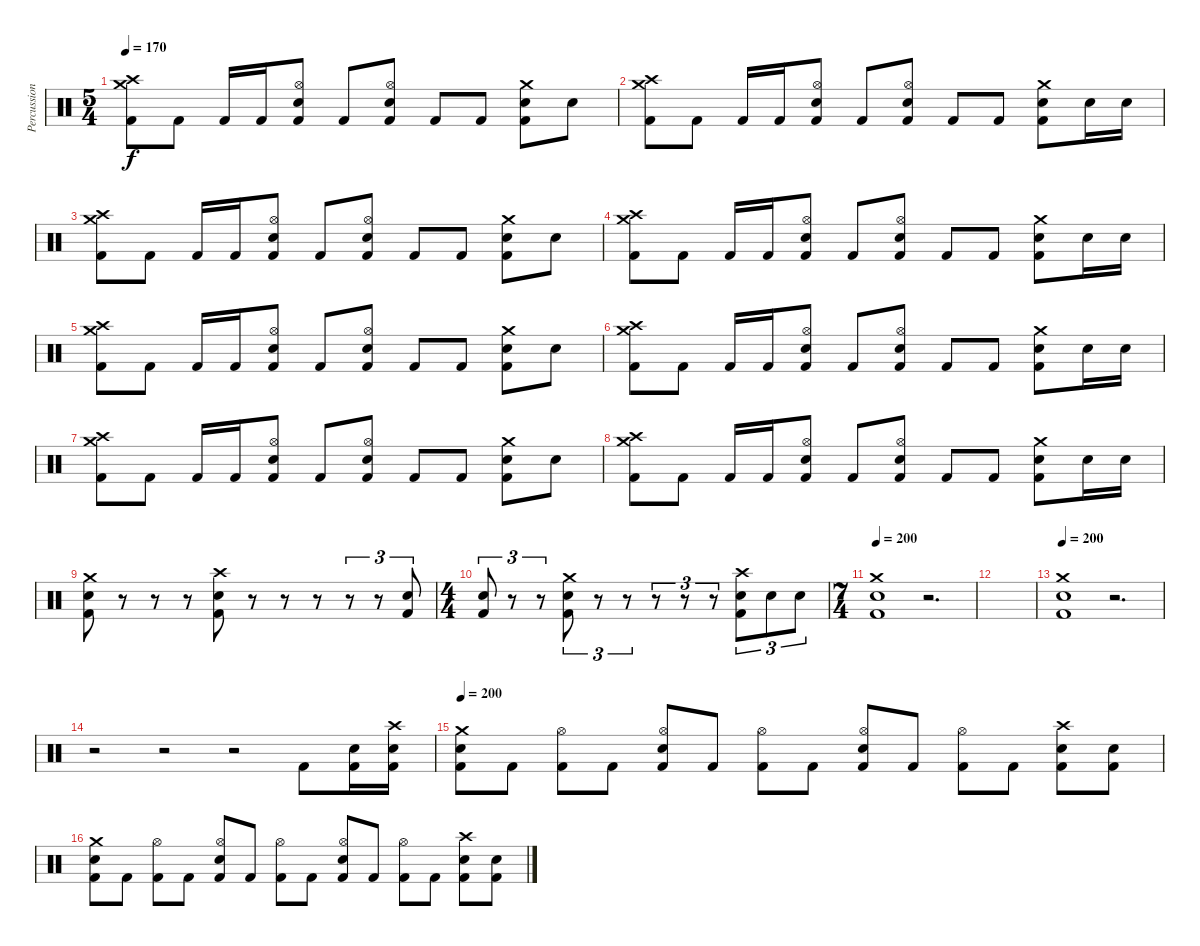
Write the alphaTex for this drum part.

\track ("Percussion" "Percussion") {instrument percussion}
\staff {score}
\articulation defaults
\ts (5 4)
\tempo 170
\clef neutral
\ks c
("Crash medium (hit)" "Crash high (hit)" "Kick (hit) 2").8{dy f} "Kick (hit) 2".8 "Kick (hit) 2".16 "Kick (hit) 2".16 ("Hi-Hat (open)" "Snare (hit) 2" "Kick (hit) 2").8 "Kick (hit) 2".8 ("Hi-Hat (open)" "Snare (hit) 2" "Kick (hit) 2").8 "Kick (hit) 2".8 "Kick (hit) 2".8 ("Crash medium (hit)" "Snare (hit) 2" "Kick (hit) 2").8 "Snare (hit) 2".8 |
("Crash medium (hit)" "Crash high (hit)" "Kick (hit) 2").8 "Kick (hit) 2".8 "Kick (hit) 2".16 "Kick (hit) 2".16 ("Hi-Hat (open)" "Snare (hit) 2" "Kick (hit) 2").8 "Kick (hit) 2".8 ("Hi-Hat (open)" "Snare (hit) 2" "Kick (hit) 2").8 "Kick (hit) 2".8 "Kick (hit) 2".8 ("Crash medium (hit)" "Snare (hit) 2" "Kick (hit) 2").8 "Snare (hit) 2".16 "Snare (hit) 2".16 |
("Crash medium (hit)" "Crash high (hit)" "Kick (hit) 2").8 "Kick (hit) 2".8 "Kick (hit) 2".16 "Kick (hit) 2".16 ("Hi-Hat (open)" "Snare (hit) 2" "Kick (hit) 2").8 "Kick (hit) 2".8 ("Hi-Hat (open)" "Snare (hit) 2" "Kick (hit) 2").8 "Kick (hit) 2".8 "Kick (hit) 2".8 ("Crash medium (hit)" "Snare (hit) 2" "Kick (hit) 2").8 "Snare (hit) 2".8 |
("Crash medium (hit)" "Crash high (hit)" "Kick (hit) 2").8 "Kick (hit) 2".8 "Kick (hit) 2".16 "Kick (hit) 2".16 ("Hi-Hat (open)" "Snare (hit) 2" "Kick (hit) 2").8 "Kick (hit) 2".8 ("Hi-Hat (open)" "Snare (hit) 2" "Kick (hit) 2").8 "Kick (hit) 2".8 "Kick (hit) 2".8 ("Crash medium (hit)" "Snare (hit) 2" "Kick (hit) 2").8 "Snare (hit) 2".16 "Snare (hit) 2".16 |
("Crash medium (hit)" "Crash high (hit)" "Kick (hit) 2").8 "Kick (hit) 2".8 "Kick (hit) 2".16 "Kick (hit) 2".16 ("Hi-Hat (open)" "Snare (hit) 2" "Kick (hit) 2").8 "Kick (hit) 2".8 ("Hi-Hat (open)" "Snare (hit) 2" "Kick (hit) 2").8 "Kick (hit) 2".8 "Kick (hit) 2".8 ("Crash medium (hit)" "Snare (hit) 2" "Kick (hit) 2").8 "Snare (hit) 2".8 |
("Crash medium (hit)" "Crash high (hit)" "Kick (hit) 2").8 "Kick (hit) 2".8 "Kick (hit) 2".16 "Kick (hit) 2".16 ("Hi-Hat (open)" "Snare (hit) 2" "Kick (hit) 2").8 "Kick (hit) 2".8 ("Hi-Hat (open)" "Snare (hit) 2" "Kick (hit) 2").8 "Kick (hit) 2".8 "Kick (hit) 2".8 ("Crash medium (hit)" "Snare (hit) 2" "Kick (hit) 2").8 "Snare (hit) 2".16 "Snare (hit) 2".16 |
("Crash medium (hit)" "Crash high (hit)" "Kick (hit) 2").8 "Kick (hit) 2".8 "Kick (hit) 2".16 "Kick (hit) 2".16 ("Hi-Hat (open)" "Snare (hit) 2" "Kick (hit) 2").8 "Kick (hit) 2".8 ("Hi-Hat (open)" "Snare (hit) 2" "Kick (hit) 2").8 "Kick (hit) 2".8 "Kick (hit) 2".8 ("Crash medium (hit)" "Snare (hit) 2" "Kick (hit) 2").8 "Snare (hit) 2".8 |
("Crash medium (hit)" "Crash high (hit)" "Kick (hit) 2").8 "Kick (hit) 2".8 "Kick (hit) 2".16 "Kick (hit) 2".16 ("Hi-Hat (open)" "Snare (hit) 2" "Kick (hit) 2").8 "Kick (hit) 2".8 ("Hi-Hat (open)" "Snare (hit) 2" "Kick (hit) 2").8 "Kick (hit) 2".8 "Kick (hit) 2".8 ("Crash medium (hit)" "Snare (hit) 2" "Kick (hit) 2").8 "Snare (hit) 2".16 "Snare (hit) 2".16 |
("Crash medium (hit)" "Snare (hit) 2" "Kick (hit) 2").8 r.8 r.8 r.8 ("Crash high (hit)" "Snare (hit) 2" "Kick (hit) 2").8 r.8 r.8 r.8 r.8{tu (3 2)} r.8{tu (3 2)} ("Snare (hit) 2" "Kick (hit) 2").8{tu (3 2)} |
\ts (4 4)
("Snare (hit) 2" "Kick (hit) 2").8{tu (3 2)} r.8{tu (3 2)} r.8{tu (3 2)} ("Crash medium (hit)" "Snare (hit) 2" "Kick (hit) 2").8{tu (3 2)} r.8{tu (3 2)} r.8{tu (3 2)} r.8{tu (3 2)} r.8{tu (3 2)} r.8{tu (3 2)} ("Crash high (hit)" "Snare (hit) 2" "Kick (hit) 2").8{tu (3 2)} "Snare (hit) 2".8{tu (3 2)} "Snare (hit) 2".8{tu (3 2)} |
\ts (7 4)
\tempo 200
("Crash medium (hit)" "Snare (hit) 2" "Kick (hit) 2").1 r.2{d} |
|
\tempo 200
("Crash medium (hit)" "Snare (hit) 2" "Kick (hit) 2").1 r.2{d} |
r.2 r.2 r.2 "Kick (hit) 2".8 ("Snare (hit) 2" "Kick (hit) 2").16 ("Crash high (hit)" "Snare (hit) 2" "Kick (hit) 2").16 |
\tempo 200
("Crash medium (hit)" "Snare (hit) 2" "Kick (hit) 2").8 "Kick (hit) 2".8 ("Hi-Hat (open)" "Kick (hit) 2").8 "Kick (hit) 2".8 ("Hi-Hat (open)" "Snare (hit) 2" "Kick (hit) 2").8 "Kick (hit) 2".8 ("Hi-Hat (open)" "Kick (hit) 2").8 "Kick (hit) 2".8 ("Hi-Hat (open)" "Snare (hit) 2" "Kick (hit) 2").8 "Kick (hit) 2".8 ("Hi-Hat (open)" "Kick (hit) 2").8 "Kick (hit) 2".8 ("Crash high (hit)" "Snare (hit) 2" "Kick (hit) 2").8 ("Snare (hit) 2" "Kick (hit) 2").8 |
("Crash medium (hit)" "Snare (hit) 2" "Kick (hit) 2").8 "Kick (hit) 2".8 ("Hi-Hat (open)" "Kick (hit) 2").8 "Kick (hit) 2".8 ("Hi-Hat (open)" "Snare (hit) 2" "Kick (hit) 2").8 "Kick (hit) 2".8 ("Hi-Hat (open)" "Kick (hit) 2").8 "Kick (hit) 2".8 ("Hi-Hat (open)" "Snare (hit) 2" "Kick (hit) 2").8 "Kick (hit) 2".8 ("Hi-Hat (open)" "Kick (hit) 2").8 "Kick (hit) 2".8 ("Crash high (hit)" "Snare (hit) 2" "Kick (hit) 2").8 ("Snare (hit) 2" "Kick (hit) 2").8
